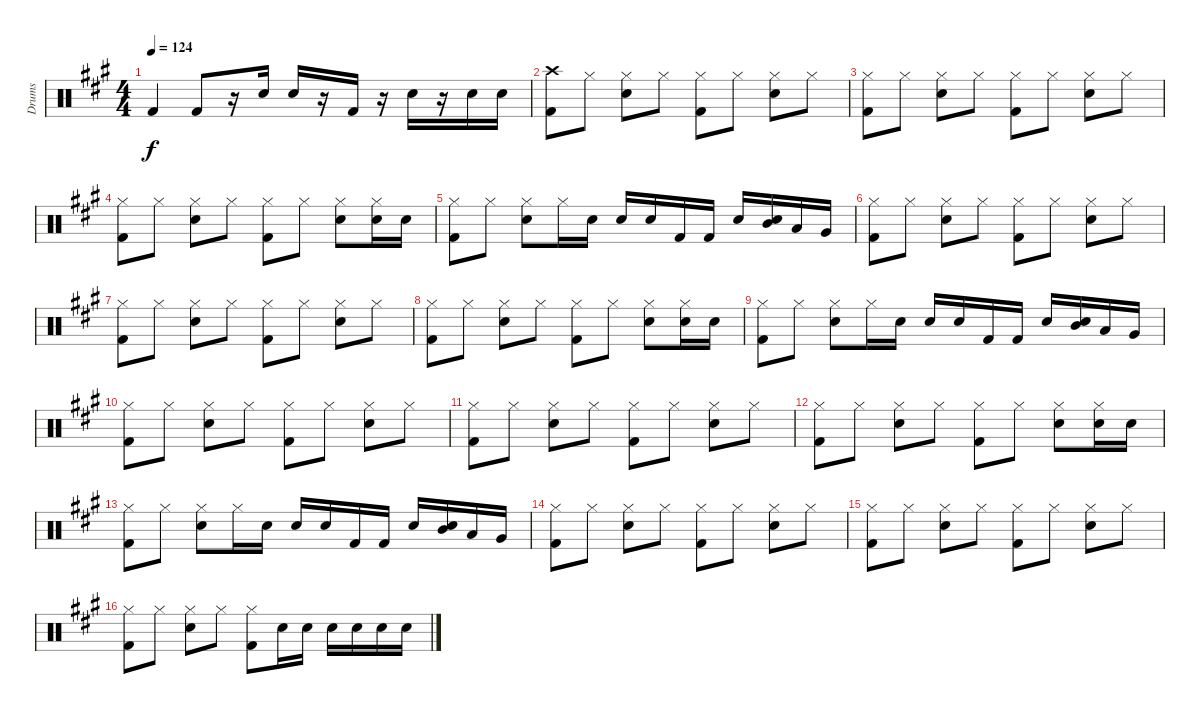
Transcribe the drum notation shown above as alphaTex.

\track ("Drums" "Drums") {instrument percussion}
\staff {score}
\articulation defaults
\ts (4 4)
\tempo 124
\clef neutral
\ks a "Kick (hit) 2".4{dy f} "Kick (hit) 2".8
r.16 "Electric Snare (hit)".16 "Electric Snare (hit)".16 r.16 "Kick (hit) 2".16 r.16 "Electric Snare (hit)".16 r.16 "Electric Snare (hit)".16 "Electric Snare (hit)".16 |
("Crash high (hit)" "Kick (hit) 2").8 "Hi-Hat (closed)".8 ("Hi-Hat (closed)" "Electric Snare (hit)").8 "Hi-Hat (closed)".8 ("Hi-Hat (closed)" "Kick (hit) 2").8 "Hi-Hat (closed)".8 ("Hi-Hat (closed)" "Electric Snare (hit)").8 "Hi-Hat (closed)".8 |
("Hi-Hat (closed)" "Kick (hit) 2").8 "Hi-Hat (closed)".8 ("Hi-Hat (closed)" "Electric Snare (hit)").8 "Hi-Hat (closed)".8 ("Hi-Hat (closed)" "Kick (hit) 2").8 "Hi-Hat (closed)".8 ("Hi-Hat (closed)" "Electric Snare (hit)").8 "Hi-Hat (closed)".8 |
("Hi-Hat (closed)" "Kick (hit) 2").8 "Hi-Hat (closed)".8 ("Hi-Hat (closed)" "Electric Snare (hit)").8 "Hi-Hat (closed)".8 ("Hi-Hat (closed)" "Kick (hit) 2").8 "Hi-Hat (closed)".8 ("Hi-Hat (closed)" "Electric Snare (hit)").8 ("Hi-Hat (closed)" "Electric Snare (hit)").16 "Electric Snare (hit)".16 |
("Hi-Hat (closed)" "Kick (hit) 2").8 "Hi-Hat (closed)".8 ("Hi-Hat (closed)" "Electric Snare (hit)").8 "Hi-Hat (closed)".16 "Electric Snare (hit)".16 "Electric Snare (hit)".16 "Electric Snare (hit)".16 "Kick (hit) 2".16 "Kick (hit) 2".16 "Electric Snare (hit)".16 ("Electric Snare (hit)" "Mid Tom (hit)").16 "Low Tom (hit)".16 "Very Low Tom (hit)".16 |
("Hi-Hat (closed)" "Kick (hit) 2").8 "Hi-Hat (closed)".8 ("Hi-Hat (closed)" "Electric Snare (hit)").8 "Hi-Hat (closed)".8 ("Hi-Hat (closed)" "Kick (hit) 2").8 "Hi-Hat (closed)".8 ("Hi-Hat (closed)" "Electric Snare (hit)").8 "Hi-Hat (closed)".8 |
("Hi-Hat (closed)" "Kick (hit) 2").8 "Hi-Hat (closed)".8 ("Hi-Hat (closed)" "Electric Snare (hit)").8 "Hi-Hat (closed)".8 ("Hi-Hat (closed)" "Kick (hit) 2").8 "Hi-Hat (closed)".8 ("Hi-Hat (closed)" "Electric Snare (hit)").8 "Hi-Hat (closed)".8 |
("Hi-Hat (closed)" "Kick (hit) 2").8 "Hi-Hat (closed)".8 ("Hi-Hat (closed)" "Electric Snare (hit)").8 "Hi-Hat (closed)".8 ("Hi-Hat (closed)" "Kick (hit) 2").8 "Hi-Hat (closed)".8 ("Hi-Hat (closed)" "Electric Snare (hit)").8 ("Hi-Hat (closed)" "Electric Snare (hit)").16 "Electric Snare (hit)".16 |
("Hi-Hat (closed)" "Kick (hit) 2").8 "Hi-Hat (closed)".8 ("Hi-Hat (closed)" "Electric Snare (hit)").8 "Hi-Hat (closed)".16 "Electric Snare (hit)".16 "Electric Snare (hit)".16 "Electric Snare (hit)".16 "Kick (hit) 2".16 "Kick (hit) 2".16 "Electric Snare (hit)".16 ("Electric Snare (hit)" "Mid Tom (hit)").16 "Low Tom (hit)".16 "Very Low Tom (hit)".16 |
("Hi-Hat (closed)" "Kick (hit) 2").8 "Hi-Hat (closed)".8 ("Hi-Hat (closed)" "Electric Snare (hit)").8 "Hi-Hat (closed)".8 ("Hi-Hat (closed)" "Kick (hit) 2").8 "Hi-Hat (closed)".8 ("Hi-Hat (closed)" "Electric Snare (hit)").8 "Hi-Hat (closed)".8 |
("Hi-Hat (closed)" "Kick (hit) 2").8 "Hi-Hat (closed)".8 ("Hi-Hat (closed)" "Electric Snare (hit)").8 "Hi-Hat (closed)".8 ("Hi-Hat (closed)" "Kick (hit) 2").8 "Hi-Hat (closed)".8 ("Hi-Hat (closed)" "Electric Snare (hit)").8 "Hi-Hat (closed)".8 |
("Hi-Hat (closed)" "Kick (hit) 2").8 "Hi-Hat (closed)".8 ("Hi-Hat (closed)" "Electric Snare (hit)").8 "Hi-Hat (closed)".8 ("Hi-Hat (closed)" "Kick (hit) 2").8 "Hi-Hat (closed)".8 ("Hi-Hat (closed)" "Electric Snare (hit)").8 ("Hi-Hat (closed)" "Electric Snare (hit)").16 "Electric Snare (hit)".16 |
("Hi-Hat (closed)" "Kick (hit) 2").8 "Hi-Hat (closed)".8 ("Hi-Hat (closed)" "Electric Snare (hit)").8 "Hi-Hat (closed)".16 "Electric Snare (hit)".16 "Electric Snare (hit)".16 "Electric Snare (hit)".16 "Kick (hit) 2".16 "Kick (hit) 2".16 "Electric Snare (hit)".16 ("Electric Snare (hit)" "Mid Tom (hit)").16 "Low Tom (hit)".16 "Very Low Tom (hit)".16 |
("Hi-Hat (closed)" "Kick (hit) 2").8 "Hi-Hat (closed)".8 ("Hi-Hat (closed)" "Electric Snare (hit)").8 "Hi-Hat (closed)".8 ("Hi-Hat (closed)" "Kick (hit) 2").8 "Hi-Hat (closed)".8 ("Hi-Hat (closed)" "Electric Snare (hit)").8 "Hi-Hat (closed)".8 |
("Hi-Hat (closed)" "Kick (hit) 2").8 "Hi-Hat (closed)".8 ("Hi-Hat (closed)" "Electric Snare (hit)").8 "Hi-Hat (closed)".8 ("Hi-Hat (closed)" "Kick (hit) 2").8 "Hi-Hat (closed)".8 ("Hi-Hat (closed)" "Electric Snare (hit)").8 "Hi-Hat (closed)".8 |
("Hi-Hat (closed)" "Kick (hit) 2").8 "Hi-Hat (closed)".8 ("Hi-Hat (closed)" "Electric Snare (hit)").8 "Hi-Hat (closed)".8 ("Hi-Hat (closed)" "Kick (hit) 2").8 "Electric Snare (hit)".16 "Electric Snare (hit)".16 "Electric Snare (hit)".16 "Electric Snare (hit)".16 "Electric Snare (hit)".16 "Electric Snare (hit)".16
